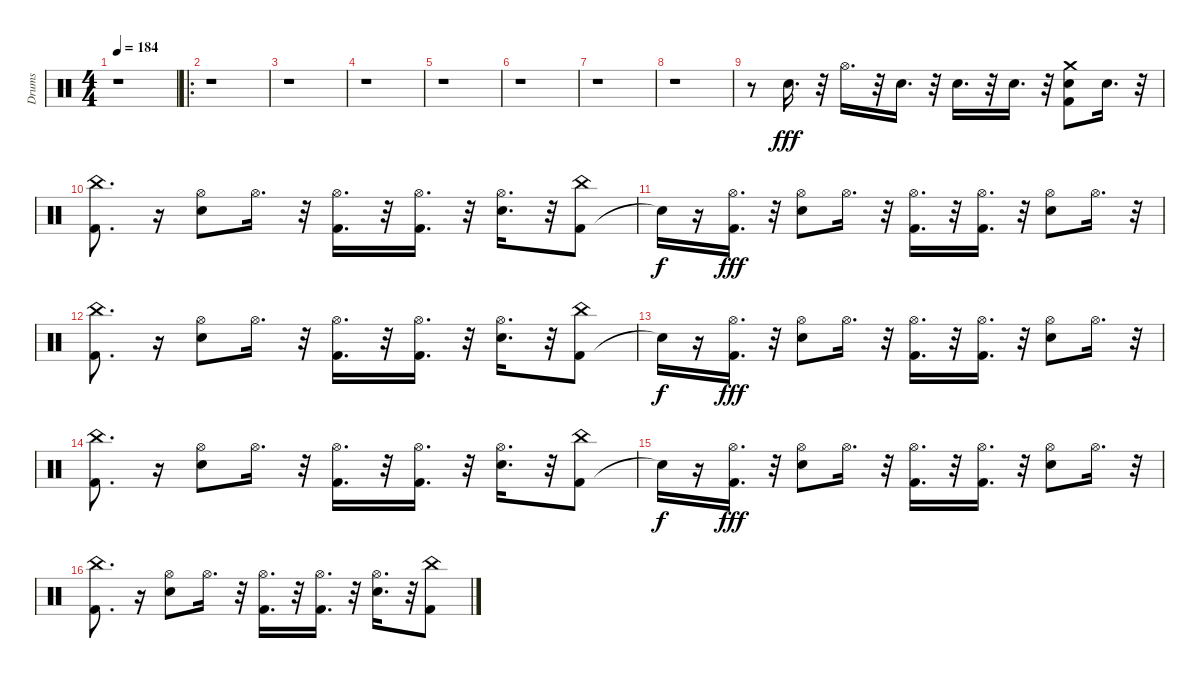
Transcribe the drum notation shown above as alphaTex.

\track ("Drums" "Drums") {instrument percussion}
\staff {score}
\articulation defaults
\ts (4 4)
\tempo 184
\clef neutral
\ks c
r.1{dy f} |
\ro
r.1 |
r.1 |
r.1 |
r.1 |
r.1 |
r.1 |
r.1 |
r.8 "Electric Snare (hit)".16{d dy fff} r.32 "Hi-Hat (open)".16{d} r.32 "Electric Snare (hit)".16{d} r.32 "Electric Snare (hit)".16{d} r.32 "Electric Snare (hit)".16{d} r.32 ("Electric Snare (hit)" "Kick (hit) 2" "Crash medium (hit)").8 "Electric Snare (hit)".16{d} r.32 |
("Kick (hit) 2" "China (hit)").8{d} r.16 ("Electric Snare (hit)" "Hi-Hat (open)").8 "Hi-Hat (open)".16{d} r.32 ("Hi-Hat (open)" "Kick (hit) 2").16{d} r.32 ("Hi-Hat (open)" "Kick (hit) 2").16{d} r.32 ("Hi-Hat (open)" "Electric Snare (hit)").16{d} r.32 ("Kick (hit) 2" "China (hit)").8 |
"Snare (hit)"{t}.16{dy f} r.16 ("Kick (hit) 2" "Hi-Hat (open)").16{d dy fff} r.32 ("Electric Snare (hit)" "Hi-Hat (open)").8 "Hi-Hat (open)".16{d} r.32 ("Kick (hit) 2" "Hi-Hat (open)").16{d} r.32 ("Kick (hit) 2" "Hi-Hat (open)").16{d} r.32 ("Electric Snare (hit)" "Hi-Hat (open)").8 "Hi-Hat (open)".16{d} r.32 |
("Kick (hit) 2" "China (hit)").8{d} r.16 ("Electric Snare (hit)" "Hi-Hat (open)").8 "Hi-Hat (open)".16{d} r.32 ("Hi-Hat (open)" "Kick (hit) 2").16{d} r.32 ("Hi-Hat (open)" "Kick (hit) 2").16{d} r.32 ("Hi-Hat (open)" "Electric Snare (hit)").16{d} r.32 ("Kick (hit) 2" "China (hit)").8 |
"Snare (hit)"{t}.16{dy f} r.16 ("Kick (hit) 2" "Hi-Hat (open)").16{d dy fff} r.32 ("Electric Snare (hit)" "Hi-Hat (open)").8 "Hi-Hat (open)".16{d} r.32 ("Kick (hit) 2" "Hi-Hat (open)").16{d} r.32 ("Kick (hit) 2" "Hi-Hat (open)").16{d} r.32 ("Electric Snare (hit)" "Hi-Hat (open)").8 "Hi-Hat (open)".16{d} r.32 |
("Kick (hit) 2" "China (hit)").8{d} r.16 ("Electric Snare (hit)" "Hi-Hat (open)").8 "Hi-Hat (open)".16{d} r.32 ("Hi-Hat (open)" "Kick (hit) 2").16{d} r.32 ("Hi-Hat (open)" "Kick (hit) 2").16{d} r.32 ("Hi-Hat (open)" "Electric Snare (hit)").16{d} r.32 ("Kick (hit) 2" "China (hit)").8 |
"Snare (hit)"{t}.16{dy f} r.16 ("Kick (hit) 2" "Hi-Hat (open)").16{d dy fff} r.32 ("Electric Snare (hit)" "Hi-Hat (open)").8 "Hi-Hat (open)".16{d} r.32 ("Kick (hit) 2" "Hi-Hat (open)").16{d} r.32 ("Kick (hit) 2" "Hi-Hat (open)").16{d} r.32 ("Electric Snare (hit)" "Hi-Hat (open)").8 "Hi-Hat (open)".16{d} r.32 |
("Kick (hit) 2" "China (hit)").8{d} r.16 ("Electric Snare (hit)" "Hi-Hat (open)").8 "Hi-Hat (open)".16{d} r.32 ("Hi-Hat (open)" "Kick (hit) 2").16{d} r.32 ("Hi-Hat (open)" "Kick (hit) 2").16{d} r.32 ("Hi-Hat (open)" "Electric Snare (hit)").16{d} r.32 ("Kick (hit) 2" "China (hit)").8
